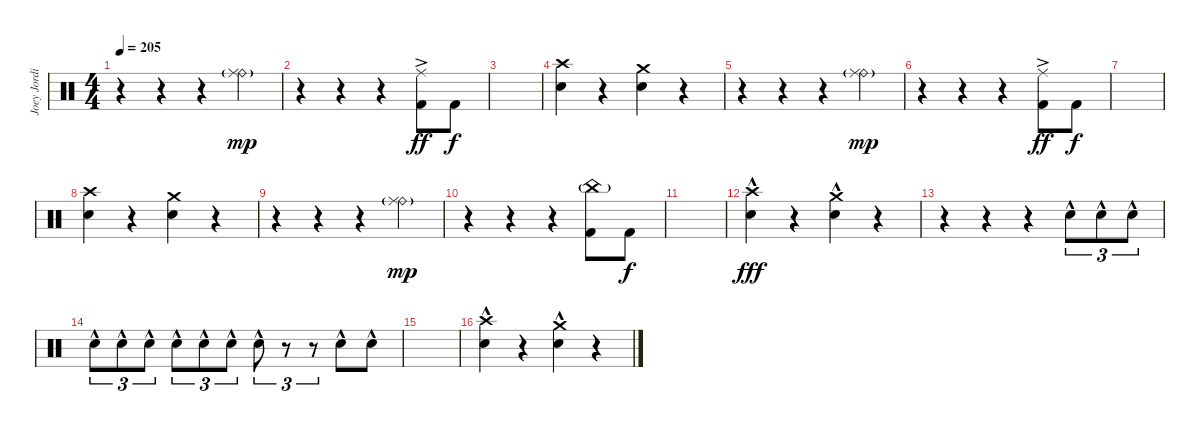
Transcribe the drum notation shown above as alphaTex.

\track ("Joey Jordison" "Joey Jordi") {instrument percussion}
\staff {score}
\articulation defaults
\ts (4 4)
\tempo 205
\clef neutral
\ks c
r.4{dy f} r.4 r.4 ("Ride (bell)"{g} "Ride (middle)").4{dy mp} |
r.4 r.4 r.4 ("Ride (middle)"{ac} "Kick (hit) 2").8{dy ff} "Kick (hit) 2".8{dy f} |
|
("Crash high (hit)" "Electric Snare (hit)").4 r.4 ("Crash medium (hit)" "Electric Snare (hit)").4 r.4 |
r.4 r.4 r.4 ("Ride (bell)"{g} "Ride (middle)").4{dy mp} |
r.4 r.4 r.4 ("Ride (middle)"{ac} "Kick (hit) 2").8{dy ff} "Kick (hit) 2".8{dy f} |
|
("Crash high (hit)" "Electric Snare (hit)").4 r.4 ("Crash medium (hit)" "Electric Snare (hit)").4 r.4 |
r.4 r.4 r.4 ("Ride (bell)"{g} "Ride (middle)").4{dy mp} |
r.4 r.4 r.4 ("China (hit)"{g} "Kick (hit) 2").8 "Kick (hit) 2".8{dy f} |
|
("Crash high (hit)"{hac} "Electric Snare (hit)"{hac}).4{dy fff} r.4 ("Crash medium (hit)"{hac} "Electric Snare (hit)"{hac}).4 r.4 |
r.4 r.4 r.4 "Electric Snare (hit)"{hac}.8{tu (3 2)} "Electric Snare (hit)"{hac}.8{tu (3 2)} "Electric Snare (hit)"{hac}.8{tu (3 2)} |
"Electric Snare (hit)"{hac}.8{tu (3 2)} "Electric Snare (hit)"{hac}.8{tu (3 2)} "Electric Snare (hit)"{hac}.8{tu (3 2)} "Electric Snare (hit)"{hac}.8{tu (3 2)} "Electric Snare (hit)"{hac}.8{tu (3 2)} "Electric Snare (hit)"{hac}.8{tu (3 2)} "Electric Snare (hit)"{hac}.8{tu (3 2)} r.8{tu (3 2)} r.8{tu (3 2)} "Electric Snare (hit)"{hac}.8 "Electric Snare (hit)"{hac}.8 |
|
("Crash high (hit)"{hac} "Electric Snare (hit)"{hac}).4 r.4 ("Crash medium (hit)"{hac} "Electric Snare (hit)"{hac}).4 r.4
